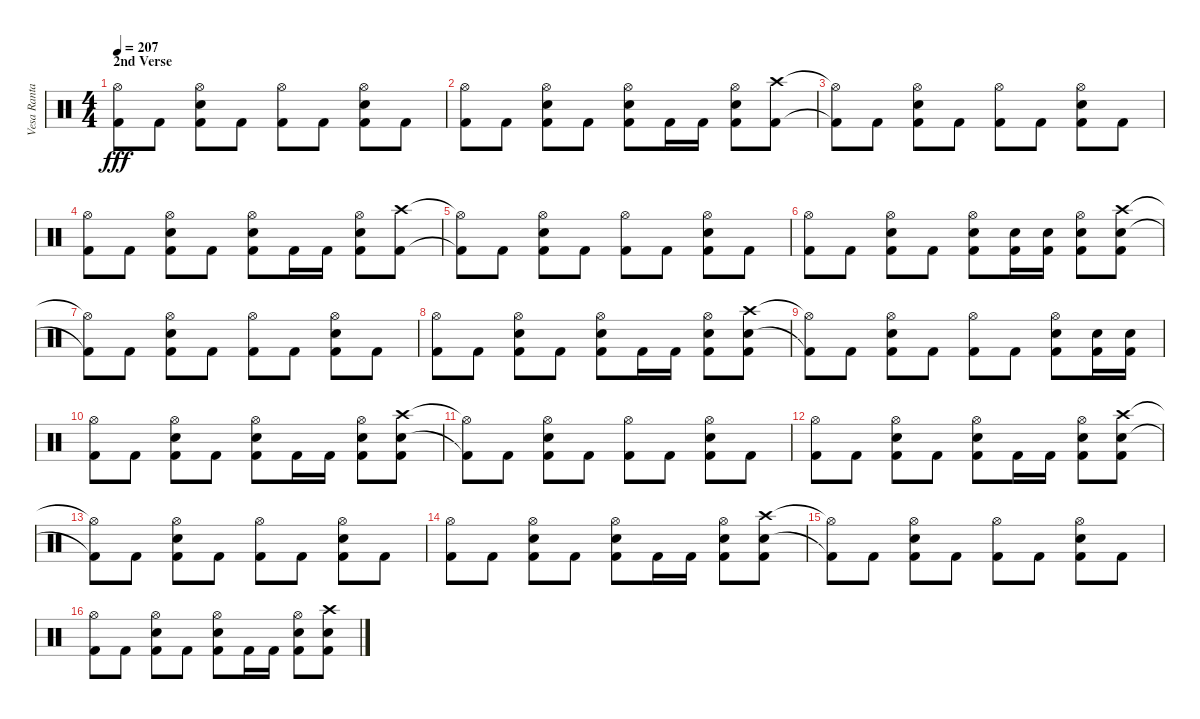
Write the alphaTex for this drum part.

\track ("Vesa Ranta" "Vesa Ranta") {instrument percussion}
\staff {score}
\articulation defaults
\ts (4 4)
\section ("" "2nd Verse")
\tempo 207
\clef neutral
\ks c
("Hi-Hat (open)"{t} "Kick (hit) 2"{t}).8{dy fff} "Kick (hit) 2".8 ("Hi-Hat (open)" "Snare (hit) 2" "Kick (hit) 2").8 "Kick (hit) 2".8 ("Hi-Hat (open)" "Kick (hit) 2").8 "Kick (hit) 2".8 ("Hi-Hat (open)" "Snare (hit) 2" "Kick (hit) 2").8 "Kick (hit) 2".8 |
("Hi-Hat (open)" "Kick (hit) 2").8 "Kick (hit) 2".8 ("Hi-Hat (open)" "Snare (hit) 2" "Kick (hit) 2").8 "Kick (hit) 2".8 ("Hi-Hat (open)" "Snare (hit) 2" "Kick (hit) 2").8 "Kick (hit) 2".16 "Kick (hit) 2".16 ("Hi-Hat (open)" "Snare (hit) 2" "Kick (hit) 2").8 ("Crash high (hit)" "Kick (hit) 2").8 |
("Hi-Hat (open)"{t} "Kick (hit) 2"{t}).8 "Kick (hit) 2".8 ("Hi-Hat (open)" "Snare (hit) 2" "Kick (hit) 2").8 "Kick (hit) 2".8 ("Hi-Hat (open)" "Kick (hit) 2").8 "Kick (hit) 2".8 ("Hi-Hat (open)" "Snare (hit) 2" "Kick (hit) 2").8 "Kick (hit) 2".8 |
("Hi-Hat (open)" "Kick (hit) 2").8 "Kick (hit) 2".8 ("Hi-Hat (open)" "Snare (hit) 2" "Kick (hit) 2").8 "Kick (hit) 2".8 ("Hi-Hat (open)" "Snare (hit) 2" "Kick (hit) 2").8 "Kick (hit) 2".16 "Kick (hit) 2".16 ("Hi-Hat (open)" "Snare (hit) 2" "Kick (hit) 2").8 ("Crash high (hit)" "Kick (hit) 2").8 |
("Hi-Hat (open)"{t} "Kick (hit) 2"{t}).8 "Kick (hit) 2".8 ("Hi-Hat (open)" "Snare (hit) 2" "Kick (hit) 2").8 "Kick (hit) 2".8 ("Hi-Hat (open)" "Kick (hit) 2").8 "Kick (hit) 2".8 ("Hi-Hat (open)" "Snare (hit) 2" "Kick (hit) 2").8 "Kick (hit) 2".8 |
("Hi-Hat (open)" "Kick (hit) 2").8 "Kick (hit) 2".8 ("Hi-Hat (open)" "Snare (hit) 2" "Kick (hit) 2").8 "Kick (hit) 2".8 ("Hi-Hat (open)" "Snare (hit) 2" "Kick (hit) 2").8 ("Snare (hit) 2" "Kick (hit) 2").16 ("Snare (hit) 2" "Kick (hit) 2").16 ("Hi-Hat (open)" "Snare (hit) 2" "Kick (hit) 2").8 ("Crash high (hit)" "Snare (hit) 2" "Kick (hit) 2").8 |
("Hi-Hat (open)"{t} "Kick (hit) 2"{t}).8 "Kick (hit) 2".8 ("Hi-Hat (open)" "Snare (hit) 2" "Kick (hit) 2").8 "Kick (hit) 2".8 ("Hi-Hat (open)" "Kick (hit) 2").8 "Kick (hit) 2".8 ("Hi-Hat (open)" "Snare (hit) 2" "Kick (hit) 2").8 "Kick (hit) 2".8 |
("Hi-Hat (open)" "Kick (hit) 2").8 "Kick (hit) 2".8 ("Hi-Hat (open)" "Snare (hit) 2" "Kick (hit) 2").8 "Kick (hit) 2".8 ("Hi-Hat (open)" "Snare (hit) 2" "Kick (hit) 2").8 "Kick (hit) 2".16 "Kick (hit) 2".16 ("Hi-Hat (open)" "Snare (hit) 2" "Kick (hit) 2").8 ("Crash high (hit)" "Snare (hit) 2" "Kick (hit) 2").8 |
("Hi-Hat (open)"{t} "Kick (hit) 2"{t}).8 "Kick (hit) 2".8 ("Hi-Hat (open)" "Snare (hit) 2" "Kick (hit) 2").8 "Kick (hit) 2".8 ("Hi-Hat (open)" "Kick (hit) 2").8 "Kick (hit) 2".8 ("Hi-Hat (open)" "Snare (hit) 2" "Kick (hit) 2").8 ("Snare (hit) 2" "Kick (hit) 2").16 ("Snare (hit) 2" "Kick (hit) 2").16 |
("Hi-Hat (open)" "Kick (hit) 2").8 "Kick (hit) 2".8 ("Hi-Hat (open)" "Snare (hit) 2" "Kick (hit) 2").8 "Kick (hit) 2".8 ("Hi-Hat (open)" "Snare (hit) 2" "Kick (hit) 2").8 "Kick (hit) 2".16 "Kick (hit) 2".16 ("Hi-Hat (open)" "Snare (hit) 2" "Kick (hit) 2").8 ("Crash high (hit)" "Snare (hit) 2" "Kick (hit) 2").8 |
("Hi-Hat (open)"{t} "Kick (hit) 2"{t}).8 "Kick (hit) 2".8 ("Hi-Hat (open)" "Snare (hit) 2" "Kick (hit) 2").8 "Kick (hit) 2".8 ("Hi-Hat (open)" "Kick (hit) 2").8 "Kick (hit) 2".8 ("Hi-Hat (open)" "Snare (hit) 2" "Kick (hit) 2").8 "Kick (hit) 2".8 |
("Hi-Hat (open)" "Kick (hit) 2").8 "Kick (hit) 2".8 ("Hi-Hat (open)" "Snare (hit) 2" "Kick (hit) 2").8 "Kick (hit) 2".8 ("Hi-Hat (open)" "Snare (hit) 2" "Kick (hit) 2").8 "Kick (hit) 2".16 "Kick (hit) 2".16 ("Hi-Hat (open)" "Snare (hit) 2" "Kick (hit) 2").8 ("Crash high (hit)" "Snare (hit) 2" "Kick (hit) 2").8 |
("Hi-Hat (open)"{t} "Kick (hit) 2"{t}).8 "Kick (hit) 2".8 ("Hi-Hat (open)" "Snare (hit) 2" "Kick (hit) 2").8 "Kick (hit) 2".8 ("Hi-Hat (open)" "Kick (hit) 2").8 "Kick (hit) 2".8 ("Hi-Hat (open)" "Snare (hit) 2" "Kick (hit) 2").8 "Kick (hit) 2".8 |
("Hi-Hat (open)" "Kick (hit) 2").8 "Kick (hit) 2".8 ("Hi-Hat (open)" "Snare (hit) 2" "Kick (hit) 2").8 "Kick (hit) 2".8 ("Hi-Hat (open)" "Snare (hit) 2" "Kick (hit) 2").8 "Kick (hit) 2".16 "Kick (hit) 2".16 ("Hi-Hat (open)" "Snare (hit) 2" "Kick (hit) 2").8 ("Crash high (hit)" "Snare (hit) 2" "Kick (hit) 2").8 |
("Hi-Hat (open)"{t} "Kick (hit) 2"{t}).8 "Kick (hit) 2".8 ("Hi-Hat (open)" "Snare (hit) 2" "Kick (hit) 2").8 "Kick (hit) 2".8 ("Hi-Hat (open)" "Kick (hit) 2").8 "Kick (hit) 2".8 ("Hi-Hat (open)" "Snare (hit) 2" "Kick (hit) 2").8 "Kick (hit) 2".8 |
("Hi-Hat (open)" "Kick (hit) 2").8 "Kick (hit) 2".8 ("Hi-Hat (open)" "Snare (hit) 2" "Kick (hit) 2").8 "Kick (hit) 2".8 ("Hi-Hat (open)" "Snare (hit) 2" "Kick (hit) 2").8 "Kick (hit) 2".16 "Kick (hit) 2".16 ("Hi-Hat (open)" "Snare (hit) 2" "Kick (hit) 2").8 ("Crash high (hit)" "Snare (hit) 2" "Kick (hit) 2").8
